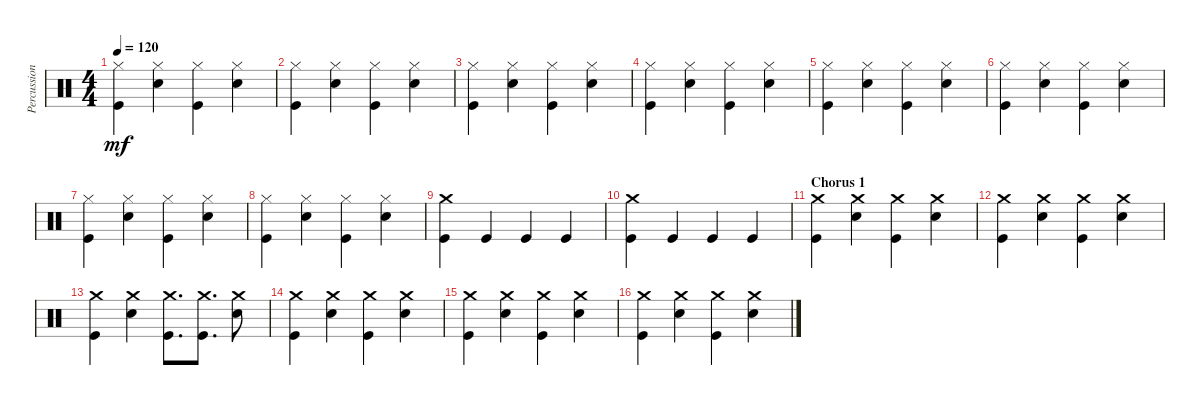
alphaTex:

\track ("Percussion" "Percussion") {instrument percussion}
\staff {score}
\articulation defaults
\ts (4 4)
\tempo 120
\clef neutral
\ks c
("Hi-Hat (closed)" "Kick (hit)").4{dy mf} ("Hi-Hat (closed)" "Snare (hit) 2").4 ("Hi-Hat (closed)" "Kick (hit)").4 ("Hi-Hat (closed)" "Snare (hit) 2").4 |
("Hi-Hat (closed)" "Kick (hit)").4 ("Hi-Hat (closed)" "Snare (hit) 2").4 ("Hi-Hat (closed)" "Kick (hit)").4 ("Hi-Hat (closed)" "Snare (hit) 2").4 |
("Hi-Hat (closed)" "Kick (hit)").4 ("Hi-Hat (closed)" "Snare (hit) 2").4 ("Hi-Hat (closed)" "Kick (hit)").4 ("Hi-Hat (closed)" "Snare (hit) 2").4 |
("Hi-Hat (closed)" "Kick (hit)").4 ("Hi-Hat (closed)" "Snare (hit) 2").4 ("Hi-Hat (closed)" "Kick (hit)").4 ("Hi-Hat (closed)" "Snare (hit) 2").4 |
("Hi-Hat (closed)" "Kick (hit)").4 ("Hi-Hat (closed)" "Snare (hit) 2").4 ("Hi-Hat (closed)" "Kick (hit)").4 ("Hi-Hat (closed)" "Snare (hit) 2").4 |
("Hi-Hat (closed)" "Kick (hit)").4 ("Hi-Hat (closed)" "Snare (hit) 2").4 ("Hi-Hat (closed)" "Kick (hit)").4 ("Hi-Hat (closed)" "Snare (hit) 2").4 |
("Hi-Hat (closed)" "Kick (hit)").4 ("Hi-Hat (closed)" "Snare (hit) 2").4 ("Hi-Hat (closed)" "Kick (hit)").4 ("Hi-Hat (closed)" "Snare (hit) 2").4 |
("Hi-Hat (closed)" "Kick (hit)").4 ("Hi-Hat (closed)" "Snare (hit) 2").4 ("Hi-Hat (closed)" "Kick (hit)").4 ("Hi-Hat (closed)" "Snare (hit) 2").4 |
("Crash medium (hit)" "Kick (hit)").4 "Kick (hit)".4 "Kick (hit)".4 "Kick (hit)".4 |
("Kick (hit)" "Crash medium (hit)").4 "Kick (hit)".4 "Kick (hit)".4 "Kick (hit)".4 |
\section ("" "Chorus 1")
("Crash medium (hit)" "Kick (hit)").4 ("Crash medium (hit)" "Snare (hit) 2").4 ("Crash medium (hit)" "Kick (hit)").4 ("Crash medium (hit)" "Snare (hit) 2").4 |
("Crash medium (hit)" "Kick (hit)").4 ("Crash medium (hit)" "Snare (hit) 2").4 ("Crash medium (hit)" "Kick (hit)").4 ("Crash medium (hit)" "Snare (hit) 2").4 |
("Crash medium (hit)" "Kick (hit)").4 ("Crash medium (hit)" "Snare (hit) 2").4 ("Crash medium (hit)" "Kick (hit)").8{d} ("Crash medium (hit)" "Kick (hit)").8{d} ("Crash medium (hit)" "Snare (hit) 2").8 |
("Crash medium (hit)" "Kick (hit)").4 ("Crash medium (hit)" "Snare (hit) 2").4 ("Crash medium (hit)" "Kick (hit)").4 ("Crash medium (hit)" "Snare (hit) 2").4 |
("Crash medium (hit)" "Kick (hit)").4 ("Crash medium (hit)" "Snare (hit) 2").4 ("Crash medium (hit)" "Kick (hit)").4 ("Crash medium (hit)" "Snare (hit) 2").4 |
("Crash medium (hit)" "Kick (hit)").4 ("Crash medium (hit)" "Snare (hit) 2").4 ("Crash medium (hit)" "Kick (hit)").4 ("Crash medium (hit)" "Snare (hit) 2").4
